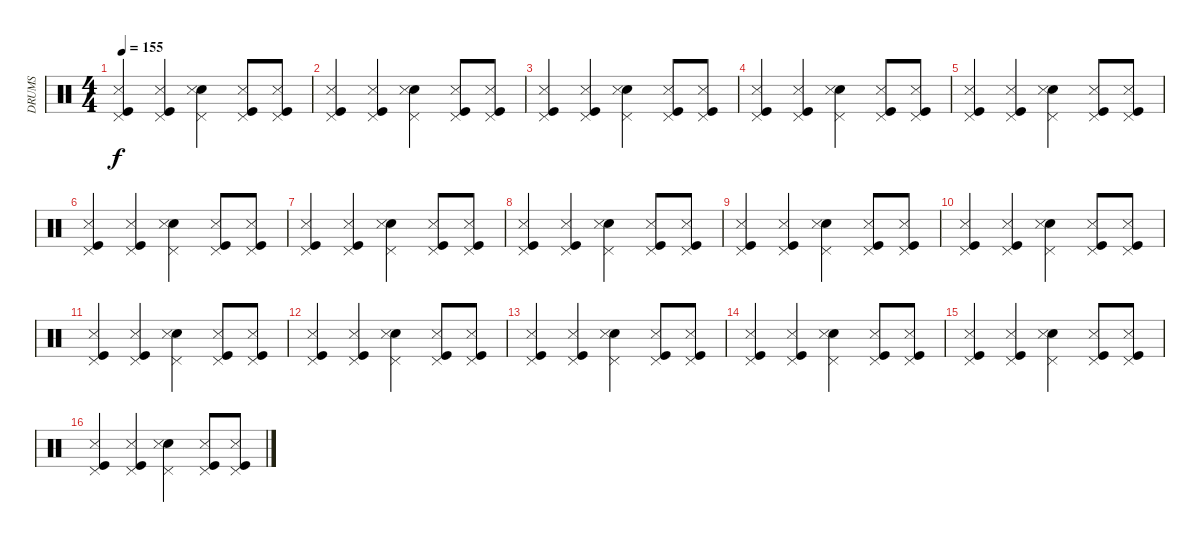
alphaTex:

\track ("DRUMS" "DRUMS") {instrument percussion}
\staff {score}
\articulation defaults
\ts (4 4)
\tempo 155
\clef neutral
\ks c
("Kick (hit)" "Snare (side stick) 3" "Pedal Hi-Hat (hit)").4{dy f balance 2} ("Kick (hit)" "Snare (side stick) 3" "Pedal Hi-Hat (hit)").4 ("Snare (hit) 2" "Snare (side stick) 3" "Pedal Hi-Hat (hit)").4 ("Kick (hit)" "Snare (side stick) 3" "Pedal Hi-Hat (hit)").8 ("Kick (hit)" "Snare (side stick) 3" "Pedal Hi-Hat (hit)").8 |
("Kick (hit)" "Snare (side stick) 3" "Pedal Hi-Hat (hit)").4 ("Kick (hit)" "Snare (side stick) 3" "Pedal Hi-Hat (hit)").4 ("Snare (hit) 2" "Snare (side stick) 3" "Pedal Hi-Hat (hit)").4 ("Kick (hit)" "Snare (side stick) 3" "Pedal Hi-Hat (hit)").8 ("Kick (hit)" "Snare (side stick) 3" "Pedal Hi-Hat (hit)").8 |
("Kick (hit)" "Snare (side stick) 3" "Pedal Hi-Hat (hit)").4 ("Kick (hit)" "Snare (side stick) 3" "Pedal Hi-Hat (hit)").4 ("Snare (hit) 2" "Snare (side stick) 3" "Pedal Hi-Hat (hit)").4 ("Kick (hit)" "Snare (side stick) 3" "Pedal Hi-Hat (hit)").8 ("Kick (hit)" "Snare (side stick) 3" "Pedal Hi-Hat (hit)").8 |
("Kick (hit)" "Snare (side stick) 3" "Pedal Hi-Hat (hit)").4 ("Kick (hit)" "Snare (side stick) 3" "Pedal Hi-Hat (hit)").4 ("Snare (hit) 2" "Snare (side stick) 3" "Pedal Hi-Hat (hit)").4 ("Kick (hit)" "Snare (side stick) 3" "Pedal Hi-Hat (hit)").8 ("Kick (hit)" "Snare (side stick) 3" "Pedal Hi-Hat (hit)").8 |
("Kick (hit)" "Snare (side stick) 3" "Pedal Hi-Hat (hit)").4 ("Kick (hit)" "Snare (side stick) 3" "Pedal Hi-Hat (hit)").4 ("Snare (hit) 2" "Snare (side stick) 3" "Pedal Hi-Hat (hit)").4 ("Kick (hit)" "Snare (side stick) 3" "Pedal Hi-Hat (hit)").8 ("Kick (hit)" "Snare (side stick) 3" "Pedal Hi-Hat (hit)").8 |
("Kick (hit)" "Snare (side stick) 3" "Pedal Hi-Hat (hit)").4 ("Kick (hit)" "Snare (side stick) 3" "Pedal Hi-Hat (hit)").4 ("Snare (hit) 2" "Snare (side stick) 3" "Pedal Hi-Hat (hit)").4 ("Kick (hit)" "Snare (side stick) 3" "Pedal Hi-Hat (hit)").8 ("Kick (hit)" "Snare (side stick) 3" "Pedal Hi-Hat (hit)").8 |
("Kick (hit)" "Snare (side stick) 3" "Pedal Hi-Hat (hit)").4 ("Kick (hit)" "Snare (side stick) 3" "Pedal Hi-Hat (hit)").4 ("Snare (hit) 2" "Snare (side stick) 3" "Pedal Hi-Hat (hit)").4 ("Kick (hit)" "Snare (side stick) 3" "Pedal Hi-Hat (hit)").8 ("Kick (hit)" "Snare (side stick) 3" "Pedal Hi-Hat (hit)").8 |
("Kick (hit)" "Snare (side stick) 3" "Pedal Hi-Hat (hit)").4 ("Kick (hit)" "Snare (side stick) 3" "Pedal Hi-Hat (hit)").4 ("Snare (hit) 2" "Snare (side stick) 3" "Pedal Hi-Hat (hit)").4 ("Kick (hit)" "Snare (side stick) 3" "Pedal Hi-Hat (hit)").8 ("Kick (hit)" "Snare (side stick) 3" "Pedal Hi-Hat (hit)").8 |
("Kick (hit)" "Snare (side stick) 3" "Pedal Hi-Hat (hit)").4 ("Kick (hit)" "Snare (side stick) 3" "Pedal Hi-Hat (hit)").4 ("Snare (hit) 2" "Snare (side stick) 3" "Pedal Hi-Hat (hit)").4 ("Kick (hit)" "Snare (side stick) 3" "Pedal Hi-Hat (hit)").8 ("Kick (hit)" "Snare (side stick) 3" "Pedal Hi-Hat (hit)").8 |
("Kick (hit)" "Snare (side stick) 3" "Pedal Hi-Hat (hit)").4 ("Kick (hit)" "Snare (side stick) 3" "Pedal Hi-Hat (hit)").4 ("Snare (hit) 2" "Snare (side stick) 3" "Pedal Hi-Hat (hit)").4 ("Kick (hit)" "Snare (side stick) 3" "Pedal Hi-Hat (hit)").8 ("Kick (hit)" "Snare (side stick) 3" "Pedal Hi-Hat (hit)").8 |
("Kick (hit)" "Snare (side stick) 3" "Pedal Hi-Hat (hit)").4 ("Kick (hit)" "Snare (side stick) 3" "Pedal Hi-Hat (hit)").4 ("Snare (hit) 2" "Snare (side stick) 3" "Pedal Hi-Hat (hit)").4 ("Kick (hit)" "Snare (side stick) 3" "Pedal Hi-Hat (hit)").8 ("Kick (hit)" "Snare (side stick) 3" "Pedal Hi-Hat (hit)").8 |
("Kick (hit)" "Snare (side stick) 3" "Pedal Hi-Hat (hit)").4 ("Kick (hit)" "Snare (side stick) 3" "Pedal Hi-Hat (hit)").4 ("Snare (hit) 2" "Snare (side stick) 3" "Pedal Hi-Hat (hit)").4 ("Kick (hit)" "Snare (side stick) 3" "Pedal Hi-Hat (hit)").8 ("Kick (hit)" "Snare (side stick) 3" "Pedal Hi-Hat (hit)").8 |
("Kick (hit)" "Snare (side stick) 3" "Pedal Hi-Hat (hit)").4 ("Kick (hit)" "Snare (side stick) 3" "Pedal Hi-Hat (hit)").4 ("Snare (hit) 2" "Snare (side stick) 3" "Pedal Hi-Hat (hit)").4 ("Kick (hit)" "Snare (side stick) 3" "Pedal Hi-Hat (hit)").8 ("Kick (hit)" "Snare (side stick) 3" "Pedal Hi-Hat (hit)").8 |
("Kick (hit)" "Snare (side stick) 3" "Pedal Hi-Hat (hit)").4 ("Kick (hit)" "Snare (side stick) 3" "Pedal Hi-Hat (hit)").4 ("Snare (hit) 2" "Snare (side stick) 3" "Pedal Hi-Hat (hit)").4 ("Kick (hit)" "Snare (side stick) 3" "Pedal Hi-Hat (hit)").8 ("Kick (hit)" "Snare (side stick) 3" "Pedal Hi-Hat (hit)").8 |
("Kick (hit)" "Snare (side stick) 3" "Pedal Hi-Hat (hit)").4 ("Kick (hit)" "Snare (side stick) 3" "Pedal Hi-Hat (hit)").4 ("Snare (hit) 2" "Snare (side stick) 3" "Pedal Hi-Hat (hit)").4 ("Kick (hit)" "Snare (side stick) 3" "Pedal Hi-Hat (hit)").8 ("Kick (hit)" "Snare (side stick) 3" "Pedal Hi-Hat (hit)").8 |
("Kick (hit)" "Snare (side stick) 3" "Pedal Hi-Hat (hit)").4 ("Kick (hit)" "Snare (side stick) 3" "Pedal Hi-Hat (hit)").4 ("Snare (hit) 2" "Snare (side stick) 3" "Pedal Hi-Hat (hit)").4 ("Kick (hit)" "Snare (side stick) 3" "Pedal Hi-Hat (hit)").8 ("Kick (hit)" "Snare (side stick) 3" "Pedal Hi-Hat (hit)").8
